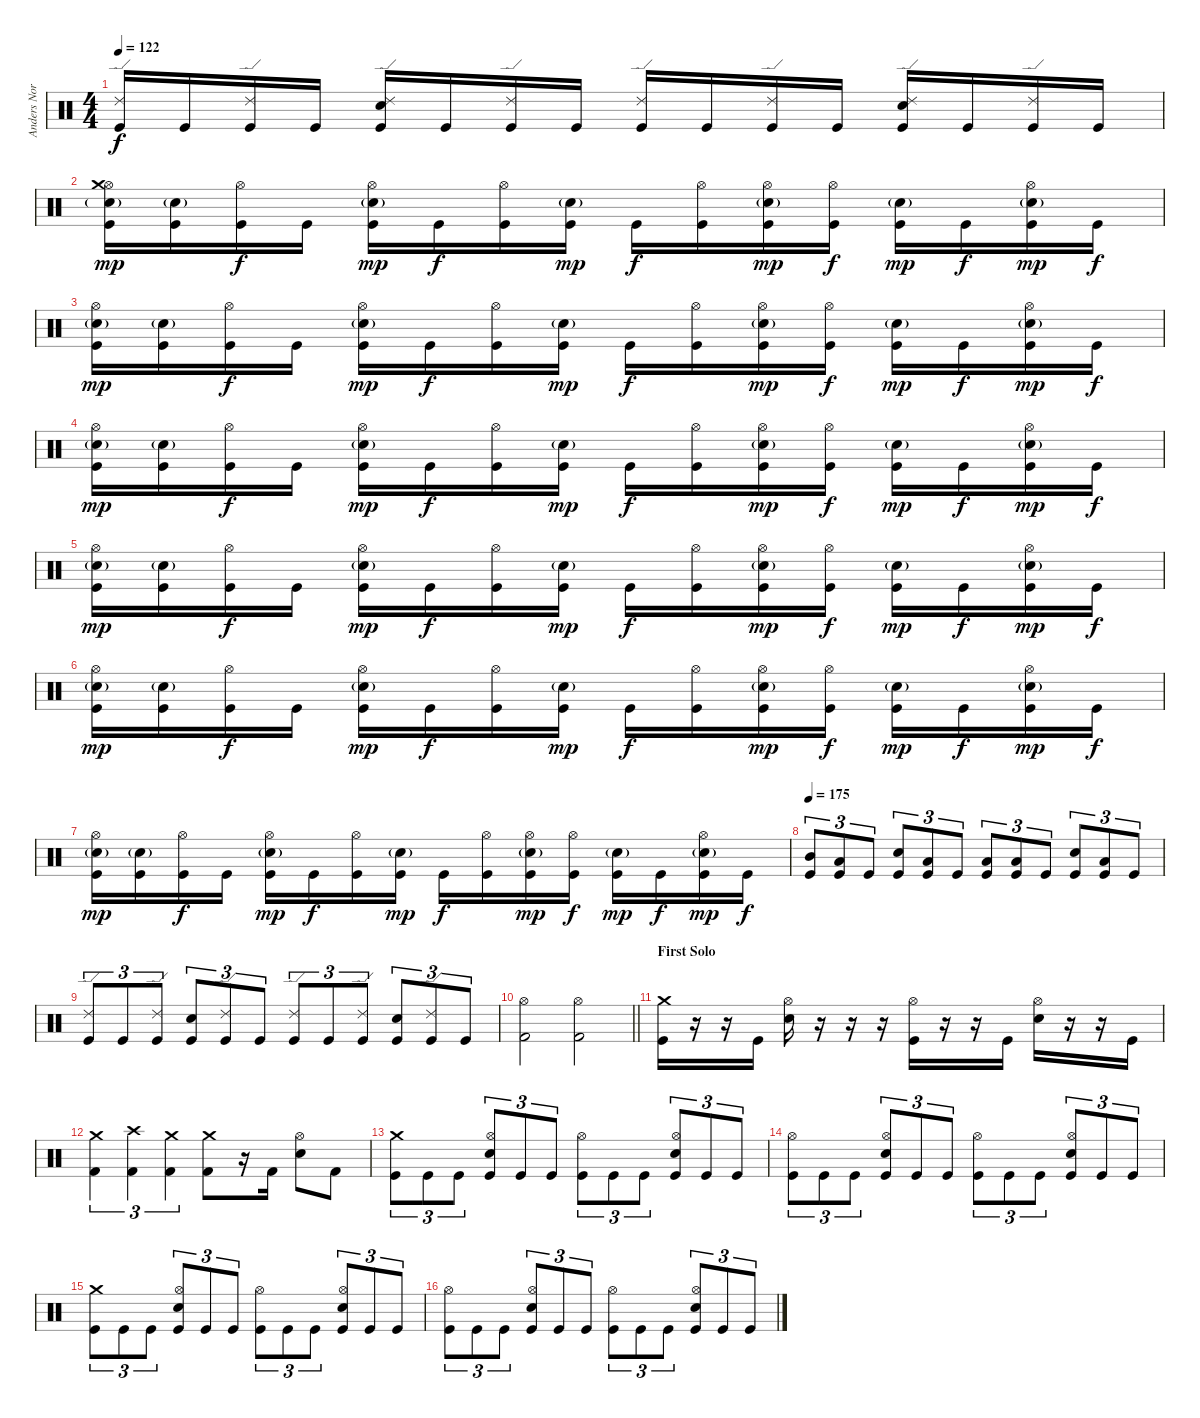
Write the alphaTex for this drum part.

\track ("Anders Nordin" "Anders Nor") {instrument percussion}
\staff {score}
\articulation defaults
\ts (4 4)
\tempo 122
\clef neutral
\ks c
("Ride (edge) 2" "Kick (hit)").16{dy f} "Kick (hit)".16 ("Ride (edge) 2" "Kick (hit)").16 "Kick (hit)".16 ("Ride (edge) 2" "Snare (hit) 2" "Kick (hit)").16 "Kick (hit)".16 ("Ride (edge) 2" "Kick (hit)").16 "Kick (hit)".16 ("Ride (edge) 2" "Kick (hit)").16 "Kick (hit)".16 ("Ride (edge) 2" "Kick (hit)").16 "Kick (hit)".16 ("Ride (edge) 2" "Snare (hit) 2" "Kick (hit)").16 "Kick (hit)".16 ("Ride (edge) 2" "Kick (hit)").16 "Kick (hit)".16 |
("Snare (hit) 2"{g} "Hi-Hat (open)" "Crash medium (hit)" "Kick (hit)").16{dy mp} ("Snare (hit) 2"{g} "Kick (hit)").16 ("Hi-Hat (open)" "Kick (hit)").16{dy f} "Kick (hit)".16 ("Snare (hit) 2"{g} "Hi-Hat (open)" "Kick (hit)").16{dy mp} "Kick (hit)".16{dy f} ("Hi-Hat (open)" "Kick (hit)").16 ("Snare (hit) 2"{g} "Kick (hit)").16{dy mp} "Kick (hit)".16{dy f} ("Hi-Hat (open)" "Kick (hit)").16 ("Snare (hit) 2"{g} "Hi-Hat (open)" "Kick (hit)").16{dy mp} ("Hi-Hat (open)" "Kick (hit)").16{dy f} ("Snare (hit) 2"{g} "Kick (hit)").16{dy mp} "Kick (hit)".16{dy f} ("Snare (hit) 2"{g} "Hi-Hat (open)" "Kick (hit)").16{dy mp} "Kick (hit)".16{dy f} |
("Snare (hit) 2"{g} "Hi-Hat (open)" "Kick (hit)").16{dy mp} ("Snare (hit) 2"{g} "Kick (hit)").16 ("Hi-Hat (open)" "Kick (hit)").16{dy f} "Kick (hit)".16 ("Snare (hit) 2"{g} "Hi-Hat (open)" "Kick (hit)").16{dy mp} "Kick (hit)".16{dy f} ("Hi-Hat (open)" "Kick (hit)").16 ("Snare (hit) 2"{g} "Kick (hit)").16{dy mp} "Kick (hit)".16{dy f} ("Hi-Hat (open)" "Kick (hit)").16 ("Snare (hit) 2"{g} "Hi-Hat (open)" "Kick (hit)").16{dy mp} ("Hi-Hat (open)" "Kick (hit)").16{dy f} ("Snare (hit) 2"{g} "Kick (hit)").16{dy mp} "Kick (hit)".16{dy f} ("Snare (hit) 2"{g} "Hi-Hat (open)" "Kick (hit)").16{dy mp} "Kick (hit)".16{dy f} |
("Snare (hit) 2"{g} "Hi-Hat (open)" "Kick (hit)").16{dy mp} ("Snare (hit) 2"{g} "Kick (hit)").16 ("Hi-Hat (open)" "Kick (hit)").16{dy f} "Kick (hit)".16 ("Snare (hit) 2"{g} "Hi-Hat (open)" "Kick (hit)").16{dy mp} "Kick (hit)".16{dy f} ("Hi-Hat (open)" "Kick (hit)").16 ("Snare (hit) 2"{g} "Kick (hit)").16{dy mp} "Kick (hit)".16{dy f} ("Hi-Hat (open)" "Kick (hit)").16 ("Snare (hit) 2"{g} "Hi-Hat (open)" "Kick (hit)").16{dy mp} ("Hi-Hat (open)" "Kick (hit)").16{dy f} ("Snare (hit) 2"{g} "Kick (hit)").16{dy mp} "Kick (hit)".16{dy f} ("Snare (hit) 2"{g} "Hi-Hat (open)" "Kick (hit)").16{dy mp} "Kick (hit)".16{dy f} |
("Snare (hit) 2"{g} "Hi-Hat (open)" "Kick (hit)").16{dy mp} ("Snare (hit) 2"{g} "Kick (hit)").16 ("Hi-Hat (open)" "Kick (hit)").16{dy f} "Kick (hit)".16 ("Snare (hit) 2"{g} "Hi-Hat (open)" "Kick (hit)").16{dy mp} "Kick (hit)".16{dy f} ("Hi-Hat (open)" "Kick (hit)").16 ("Snare (hit) 2"{g} "Kick (hit)").16{dy mp} "Kick (hit)".16{dy f} ("Hi-Hat (open)" "Kick (hit)").16 ("Snare (hit) 2"{g} "Hi-Hat (open)" "Kick (hit)").16{dy mp} ("Hi-Hat (open)" "Kick (hit)").16{dy f} ("Snare (hit) 2"{g} "Kick (hit)").16{dy mp} "Kick (hit)".16{dy f} ("Snare (hit) 2"{g} "Hi-Hat (open)" "Kick (hit)").16{dy mp} "Kick (hit)".16{dy f} |
("Snare (hit) 2"{g} "Hi-Hat (open)" "Kick (hit)").16{dy mp} ("Snare (hit) 2"{g} "Kick (hit)").16 ("Hi-Hat (open)" "Kick (hit)").16{dy f} "Kick (hit)".16 ("Snare (hit) 2"{g} "Hi-Hat (open)" "Kick (hit)").16{dy mp} "Kick (hit)".16{dy f} ("Hi-Hat (open)" "Kick (hit)").16 ("Snare (hit) 2"{g} "Kick (hit)").16{dy mp} "Kick (hit)".16{dy f} ("Hi-Hat (open)" "Kick (hit)").16 ("Snare (hit) 2"{g} "Hi-Hat (open)" "Kick (hit)").16{dy mp} ("Hi-Hat (open)" "Kick (hit)").16{dy f} ("Snare (hit) 2"{g} "Kick (hit)").16{dy mp} "Kick (hit)".16{dy f} ("Snare (hit) 2"{g} "Hi-Hat (open)" "Kick (hit)").16{dy mp} "Kick (hit)".16{dy f} |
("Snare (hit) 2"{g} "Hi-Hat (open)" "Kick (hit)").16{dy mp} ("Snare (hit) 2"{g} "Kick (hit)").16 ("Hi-Hat (open)" "Kick (hit)").16{dy f} "Kick (hit)".16 ("Snare (hit) 2"{g} "Hi-Hat (open)" "Kick (hit)").16{dy mp} "Kick (hit)".16{dy f} ("Hi-Hat (open)" "Kick (hit)").16 ("Snare (hit) 2"{g} "Kick (hit)").16{dy mp} "Kick (hit)".16{dy f} ("Hi-Hat (open)" "Kick (hit)").16 ("Snare (hit) 2"{g} "Hi-Hat (open)" "Kick (hit)").16{dy mp} ("Hi-Hat (open)" "Kick (hit)").16{dy f} ("Snare (hit) 2"{g} "Kick (hit)").16{dy mp} "Kick (hit)".16{dy f} ("Snare (hit) 2"{g} "Hi-Hat (open)" "Kick (hit)").16{dy mp} "Kick (hit)".16{dy f} |
\tempo 175
("Mid Tom (hit)" "Kick (hit)").8{tu (3 2)} ("Low Tom (hit)" "Kick (hit)").8{tu (3 2)} "Kick (hit)".8{tu (3 2)} ("Snare (hit) 2" "Kick (hit)").8{tu (3 2)} ("Low Floor Tom (hit)" "Kick (hit)").8{tu (3 2)} "Kick (hit)".8{tu (3 2)} ("Low Tom (hit)" "Kick (hit)").8{tu (3 2)} ("Low Tom (hit)" "Kick (hit)").8{tu (3 2)} "Kick (hit)".8{tu (3 2)} ("Snare (hit) 2" "Kick (hit)").8{tu (3 2)} ("Low Floor Tom (hit)" "Kick (hit)").8{tu (3 2)} "Kick (hit)".8{tu (3 2)} |
("Ride (edge) 2" "Kick (hit)").8{tu (3 2)} "Kick (hit)".8{tu (3 2)} ("Ride (edge) 2" "Kick (hit)").8{tu (3 2)} ("Snare (hit) 2" "Kick (hit)").8{tu (3 2)} ("Ride (edge) 2" "Kick (hit)").8{tu (3 2)} "Kick (hit)".8{tu (3 2)} ("Ride (edge) 2" "Kick (hit)").8{tu (3 2)} "Kick (hit)".8{tu (3 2)} ("Ride (edge) 2" "Kick (hit)").8{tu (3 2)} ("Snare (hit) 2" "Kick (hit)").8{tu (3 2)} ("Ride (edge) 2" "Kick (hit)").8{tu (3 2)} "Kick (hit)".8{tu (3 2)} |
\barLineRight lightlight
("Hi-Hat (open)" "Kick (hit) 2").2 ("Hi-Hat (open)" "Kick (hit) 2").2 |
\section ("" "First Solo")
("Crash medium (hit)" "Kick (hit)").16 r.16 r.16 "Kick (hit)".16 ("Snare (hit) 2" "Hi-Hat (open)").16 r.16 r.16 r.16 ("Hi-Hat (open)" "Kick (hit)").16 r.16 r.16 "Kick (hit)".16 ("Snare (hit) 2" "Hi-Hat (open)").16 r.16 r.16 "Kick (hit)".16 |
("Crash medium (hit)" "Kick (hit) 2").4{tu (3 2)} ("Crash high (hit)" "Kick (hit) 2").4{tu (3 2)} ("Crash medium (hit)" "Kick (hit) 2").4{tu (3 2)} ("Crash medium (hit)" "Kick (hit) 2").8 r.16 "Kick (hit) 2".16 ("Snare (hit) 2" "Hi-Hat (open)").8 "Kick (hit) 2".8 |
("Crash medium (hit)" "Kick (hit)").8{tu (3 2)} "Kick (hit)".8{tu (3 2)} "Kick (hit)".8{tu (3 2)} ("Hi-Hat (open)" "Electric Snare (hit)" "Kick (hit)").8{tu (3 2)} "Kick (hit)".8{tu (3 2)} "Kick (hit)".8{tu (3 2)} ("Hi-Hat (open)" "Kick (hit)").8{tu (3 2)} "Kick (hit)".8{tu (3 2)} "Kick (hit)".8{tu (3 2)} ("Hi-Hat (open)" "Electric Snare (hit)" "Kick (hit)").8{tu (3 2)} "Kick (hit)".8{tu (3 2)} "Kick (hit)".8{tu (3 2)} |
("Hi-Hat (open)" "Kick (hit)").8{tu (3 2)} "Kick (hit)".8{tu (3 2)} "Kick (hit)".8{tu (3 2)} ("Hi-Hat (open)" "Electric Snare (hit)" "Kick (hit)").8{tu (3 2)} "Kick (hit)".8{tu (3 2)} "Kick (hit)".8{tu (3 2)} ("Hi-Hat (open)" "Kick (hit)").8{tu (3 2)} "Kick (hit)".8{tu (3 2)} "Kick (hit)".8{tu (3 2)} ("Hi-Hat (open)" "Electric Snare (hit)" "Kick (hit)").8{tu (3 2)} "Kick (hit)".8{tu (3 2)} "Kick (hit)".8{tu (3 2)} |
("Crash medium (hit)" "Kick (hit)").8{tu (3 2)} "Kick (hit)".8{tu (3 2)} "Kick (hit)".8{tu (3 2)} ("Hi-Hat (open)" "Electric Snare (hit)" "Kick (hit)").8{tu (3 2)} "Kick (hit)".8{tu (3 2)} "Kick (hit)".8{tu (3 2)} ("Hi-Hat (open)" "Kick (hit)").8{tu (3 2)} "Kick (hit)".8{tu (3 2)} "Kick (hit)".8{tu (3 2)} ("Hi-Hat (open)" "Electric Snare (hit)" "Kick (hit)").8{tu (3 2)} "Kick (hit)".8{tu (3 2)} "Kick (hit)".8{tu (3 2)} |
("Hi-Hat (open)" "Kick (hit)").8{tu (3 2)} "Kick (hit)".8{tu (3 2)} "Kick (hit)".8{tu (3 2)} ("Hi-Hat (open)" "Electric Snare (hit)" "Kick (hit)").8{tu (3 2)} "Kick (hit)".8{tu (3 2)} "Kick (hit)".8{tu (3 2)} ("Hi-Hat (open)" "Kick (hit)").8{tu (3 2)} "Kick (hit)".8{tu (3 2)} "Kick (hit)".8{tu (3 2)} ("Hi-Hat (open)" "Electric Snare (hit)" "Kick (hit)").8{tu (3 2)} "Kick (hit)".8{tu (3 2)} "Kick (hit)".8{tu (3 2)}
